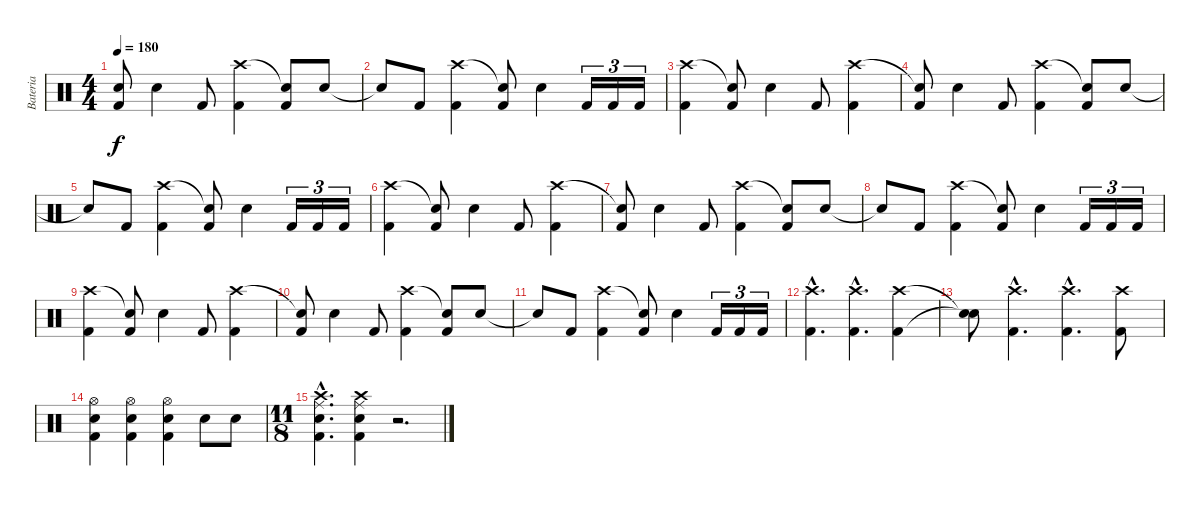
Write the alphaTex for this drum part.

\track ("Bateria" "Bateria") {instrument percussion}
\staff {score}
\articulation defaults
\ts (4 4)
\tempo 180
\clef neutral
\ks c
("Snare (hit) 2"{t} "Kick (hit) 2").8{dy f} "Electric Snare (hit)".4 "Kick (hit) 2".8 ("Crash high (hit)" "Kick (hit) 2").4 ("Snare (hit) 2"{t} "Kick (hit) 2").8 "Electric Snare (hit)".8 |
"Snare (hit)"{t}.8 "Kick (hit) 2".8 ("Crash high (hit)" "Kick (hit) 2").4 ("Snare (hit)"{t} "Kick (hit) 2").8 "Electric Snare (hit)".4 "Kick (hit) 2".16{tu (3 2)} "Kick (hit) 2".16{tu (3 2)} "Kick (hit) 2".16{tu (3 2)} |
("Crash high (hit)" "Kick (hit) 2").4 ("Snare (hit) 2"{t} "Kick (hit) 2").8 "Electric Snare (hit)".4 "Kick (hit) 2".8 ("Crash high (hit)" "Kick (hit) 2").4 |
("Snare (hit) 2"{t} "Kick (hit) 2").8 "Electric Snare (hit)".4 "Kick (hit) 2".8 ("Crash high (hit)" "Kick (hit) 2").4 ("Snare (hit) 2"{t} "Kick (hit) 2").8 "Electric Snare (hit)".8 |
"Snare (hit)"{t}.8 "Kick (hit) 2".8 ("Crash high (hit)" "Kick (hit) 2").4 ("Snare (hit)"{t} "Kick (hit) 2").8 "Electric Snare (hit)".4 "Kick (hit) 2".16{tu (3 2)} "Kick (hit) 2".16{tu (3 2)} "Kick (hit) 2".16{tu (3 2)} |
("Crash high (hit)" "Kick (hit) 2").4 ("Snare (hit) 2"{t} "Kick (hit) 2").8 "Electric Snare (hit)".4 "Kick (hit) 2".8 ("Crash high (hit)" "Kick (hit) 2").4 |
("Snare (hit) 2"{t} "Kick (hit) 2").8 "Electric Snare (hit)".4 "Kick (hit) 2".8 ("Crash high (hit)" "Kick (hit) 2").4 ("Snare (hit) 2"{t} "Kick (hit) 2").8 "Electric Snare (hit)".8 |
"Snare (hit)"{t}.8 "Kick (hit) 2".8 ("Crash high (hit)" "Kick (hit) 2").4 ("Snare (hit)"{t} "Kick (hit) 2").8 "Electric Snare (hit)".4 "Kick (hit) 2".16{tu (3 2)} "Kick (hit) 2".16{tu (3 2)} "Kick (hit) 2".16{tu (3 2)} |
("Crash high (hit)" "Kick (hit) 2").4 ("Snare (hit) 2"{t} "Kick (hit) 2").8 "Electric Snare (hit)".4 "Kick (hit) 2".8 ("Crash high (hit)" "Kick (hit) 2").4 |
("Snare (hit) 2"{t} "Kick (hit) 2").8 "Electric Snare (hit)".4 "Kick (hit) 2".8 ("Crash high (hit)" "Kick (hit) 2").4 ("Snare (hit) 2"{t} "Kick (hit) 2").8 "Electric Snare (hit)".8 |
"Snare (hit)"{t}.8 "Kick (hit) 2".8 ("Crash high (hit)" "Kick (hit) 2").4 ("Snare (hit)"{t} "Kick (hit) 2").8 "Electric Snare (hit)".4 "Kick (hit) 2".16{tu (3 2)} "Kick (hit) 2".16{tu (3 2)} "Kick (hit) 2".16{tu (3 2)} |
("Crash high (hit)"{hac} "Kick (hit) 2"{hac}).4{d} ("Crash high (hit)"{hac} "Kick (hit) 2"{hac}).4{d} ("Crash high (hit)" "Kick (hit) 2").4 |
("Snare (hit)"{t} "Snare (hit)"{t}).8 ("Crash high (hit)"{hac} "Kick (hit) 2"{hac}).4{d} ("Crash high (hit)"{hac} "Kick (hit) 2"{hac}).4{d} ("Crash high (hit)" "Kick (hit) 2").8 |
("Hi-Hat (open)" "Electric Snare (hit)" "Kick (hit) 2").4 ("Hi-Hat (open)" "Electric Snare (hit)" "Kick (hit) 2").4 ("Hi-Hat (open)" "Electric Snare (hit)" "Kick (hit) 2").4 "Electric Snare (hit)".8 "Electric Snare (hit)".8 |
\ts (11 8)
("Crash high (hit)"{hac} "Ride (middle)"{hac} "Electric Snare (hit)"{hac} "Kick (hit) 2"{hac}).4{d} ("Crash high (hit)" "Ride (middle)" "Electric Snare (hit)" "Kick (hit) 2").4 r.2{d}
